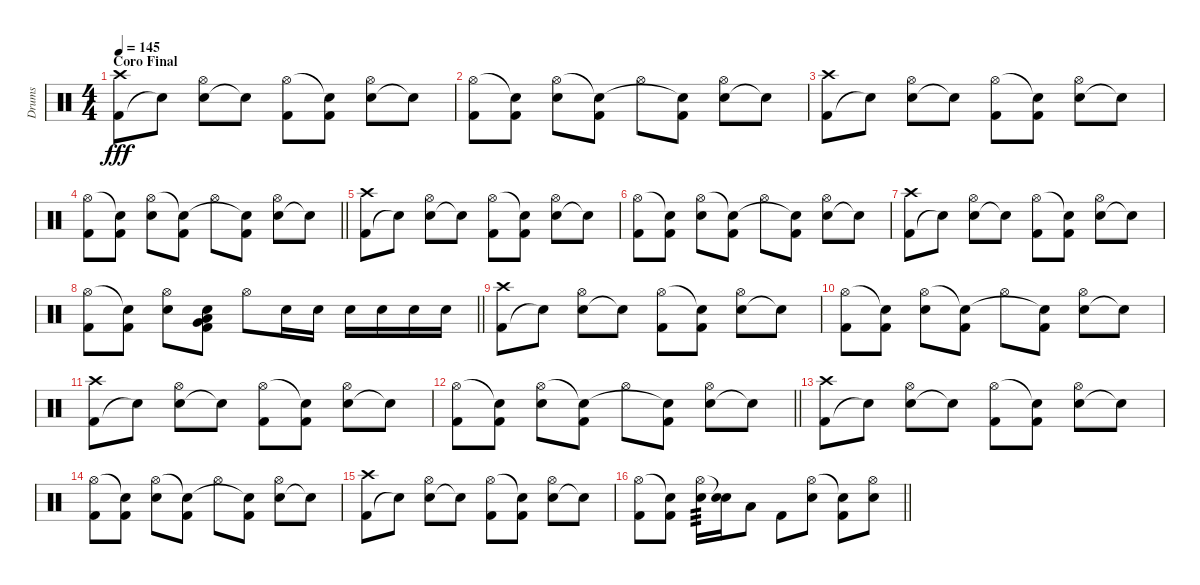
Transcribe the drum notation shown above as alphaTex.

\track ("Drums" "Drums") {instrument percussion}
\staff {score}
\articulation defaults
\ts (4 4)
\section ("" "Coro Final")
\tempo 145
\clef neutral
\ks c
("Kick (hit) 2" "Crash high (hit)").8{dy fff} "Snare (hit)"{t}.8 ("Snare (hit) 2" "Hi-Hat (open)").8 "Snare (hit)"{t}.8 ("Kick (hit) 2" "Hi-Hat (open)").8 ("Kick (hit) 2" "Snare (hit)"{t}).8 ("Snare (hit) 2" "Hi-Hat (open)").8 "Snare (hit)"{t}.8 |
("Kick (hit) 2" "Hi-Hat (open)").8 ("Kick (hit) 2" "Snare (hit)"{t}).8 ("Snare (hit) 2" "Hi-Hat (open)").8 ("Kick (hit) 2" "Snare (hit)"{t}).8 "Hi-Hat (open)".8 ("Kick (hit) 2" "Snare (hit)"{t}).8 ("Snare (hit) 2" "Hi-Hat (open)").8 "Snare (hit)"{t}.8 |
("Kick (hit) 2" "Crash high (hit)").8 "Snare (hit)"{t}.8 ("Snare (hit) 2" "Hi-Hat (open)").8 "Snare (hit)"{t}.8 ("Kick (hit) 2" "Hi-Hat (open)").8 ("Kick (hit) 2" "Snare (hit)"{t}).8 ("Snare (hit) 2" "Hi-Hat (open)").8 "Snare (hit)"{t}.8 |
\barLineRight lightlight
("Kick (hit) 2" "Hi-Hat (open)").8 ("Kick (hit) 2" "Snare (hit)"{t}).8 ("Snare (hit) 2" "Hi-Hat (open)").8 ("Kick (hit) 2" "Snare (hit)"{t}).8 "Hi-Hat (open)".8 ("Kick (hit) 2" "Snare (hit)"{t}).8 ("Snare (hit) 2" "Hi-Hat (open)").8 "Snare (hit)"{t}.8 |
("Kick (hit) 2" "Crash high (hit)").8 "Snare (hit)"{t}.8 ("Snare (hit) 2" "Hi-Hat (open)").8 "Snare (hit)"{t}.8 ("Kick (hit) 2" "Hi-Hat (open)").8 ("Kick (hit) 2" "Snare (hit)"{t}).8 ("Snare (hit) 2" "Hi-Hat (open)").8 "Snare (hit)"{t}.8 |
("Kick (hit) 2" "Hi-Hat (open)").8 ("Kick (hit) 2" "Snare (hit)"{t}).8 ("Snare (hit) 2" "Hi-Hat (open)").8 ("Kick (hit) 2" "Snare (hit)"{t}).8 "Hi-Hat (open)".8 ("Kick (hit) 2" "Snare (hit)"{t}).8 ("Snare (hit) 2" "Hi-Hat (open)").8 "Snare (hit)"{t}.8 |
("Kick (hit) 2" "Crash high (hit)").8 "Snare (hit)"{t}.8 ("Snare (hit) 2" "Hi-Hat (open)").8 "Snare (hit)"{t}.8 ("Kick (hit) 2" "Hi-Hat (open)").8 ("Kick (hit) 2" "Snare (hit)"{t}).8 ("Snare (hit) 2" "Hi-Hat (open)").8 "Snare (hit)"{t}.8 |
\barLineRight lightlight
("Kick (hit) 2" "Hi-Hat (open)").8 ("Kick (hit) 2" "Snare (hit)"{t}).8 ("Snare (hit) 2" "Hi-Hat (open)").8 ("Kick (hit) 2" "Very Low Tom (hit)" "Low Tom (hit)" "Snare (hit)").8 "Hi-Hat (open)".8 "Snare (hit) 2".16 "Snare (hit) 2".16 "Snare (hit) 2".16 "Snare (hit) 2".16 "Snare (hit) 2".16 "Snare (hit) 2".16 |
("Kick (hit) 2" "Crash high (hit)").8 "Snare (hit)"{t}.8 ("Snare (hit) 2" "Hi-Hat (open)").8 "Snare (hit)"{t}.8 ("Kick (hit) 2" "Hi-Hat (open)").8 ("Kick (hit) 2" "Snare (hit)"{t}).8 ("Snare (hit) 2" "Hi-Hat (open)").8 "Snare (hit)"{t}.8 |
("Kick (hit) 2" "Hi-Hat (open)").8 ("Kick (hit) 2" "Snare (hit)"{t}).8 ("Snare (hit) 2" "Hi-Hat (open)").8 ("Kick (hit) 2" "Snare (hit)"{t}).8 "Hi-Hat (open)".8 ("Kick (hit) 2" "Snare (hit)"{t}).8 ("Snare (hit) 2" "Hi-Hat (open)").8 "Snare (hit)"{t}.8 |
("Kick (hit) 2" "Crash high (hit)").8 "Snare (hit)"{t}.8 ("Snare (hit) 2" "Hi-Hat (open)").8 "Snare (hit)"{t}.8 ("Kick (hit) 2" "Hi-Hat (open)").8 ("Kick (hit) 2" "Snare (hit)"{t}).8 ("Snare (hit) 2" "Hi-Hat (open)").8 "Snare (hit)"{t}.8 |
\barLineRight lightlight
("Kick (hit) 2" "Hi-Hat (open)").8 ("Kick (hit) 2" "Snare (hit)"{t}).8 ("Snare (hit) 2" "Hi-Hat (open)").8 ("Kick (hit) 2" "Snare (hit)"{t}).8 "Hi-Hat (open)".8 ("Kick (hit) 2" "Snare (hit)"{t}).8 ("Snare (hit) 2" "Hi-Hat (open)").8 "Snare (hit)"{t}.8 |
("Kick (hit) 2" "Crash high (hit)").8 "Snare (hit)"{t}.8 ("Snare (hit) 2" "Hi-Hat (open)").8 "Snare (hit)"{t}.8 ("Kick (hit) 2" "Hi-Hat (open)").8 ("Kick (hit) 2" "Snare (hit)"{t}).8 ("Snare (hit) 2" "Hi-Hat (open)").8 "Snare (hit)"{t}.8 |
("Kick (hit) 2" "Hi-Hat (open)").8 ("Kick (hit) 2" "Snare (hit)"{t}).8 ("Snare (hit) 2" "Hi-Hat (open)").8 ("Kick (hit) 2" "Snare (hit)"{t}).8 "Hi-Hat (open)".8 ("Kick (hit) 2" "Snare (hit)"{t}).8 ("Snare (hit) 2" "Hi-Hat (open)").8 "Snare (hit)"{t}.8 |
("Kick (hit) 2" "Crash high (hit)").8 "Snare (hit)"{t}.8 ("Snare (hit) 2" "Hi-Hat (open)").8 "Snare (hit)"{t}.8 ("Kick (hit) 2" "Hi-Hat (open)").8 ("Kick (hit) 2" "Snare (hit)"{t}).8 ("Snare (hit) 2" "Hi-Hat (open)").8 "Snare (hit)"{t}.8 |
\barLineRight lightlight
("Kick (hit) 2" "Hi-Hat (open)").8 ("Kick (hit) 2" "Snare (hit)"{t}).8 ("Snare (hit) 2" "Hi-Hat (open)").16{tp 3} ("Snare (hit) 2" "Snare (hit)"{t}).16 "Low Tom (hit)".8 "Kick (hit) 2".8 ("Snare (hit) 2" "Hi-Hat (open)").8 ("Kick (hit) 2" "Snare (hit)"{t}).8 ("Snare (hit) 2" "Hi-Hat (open)").8
